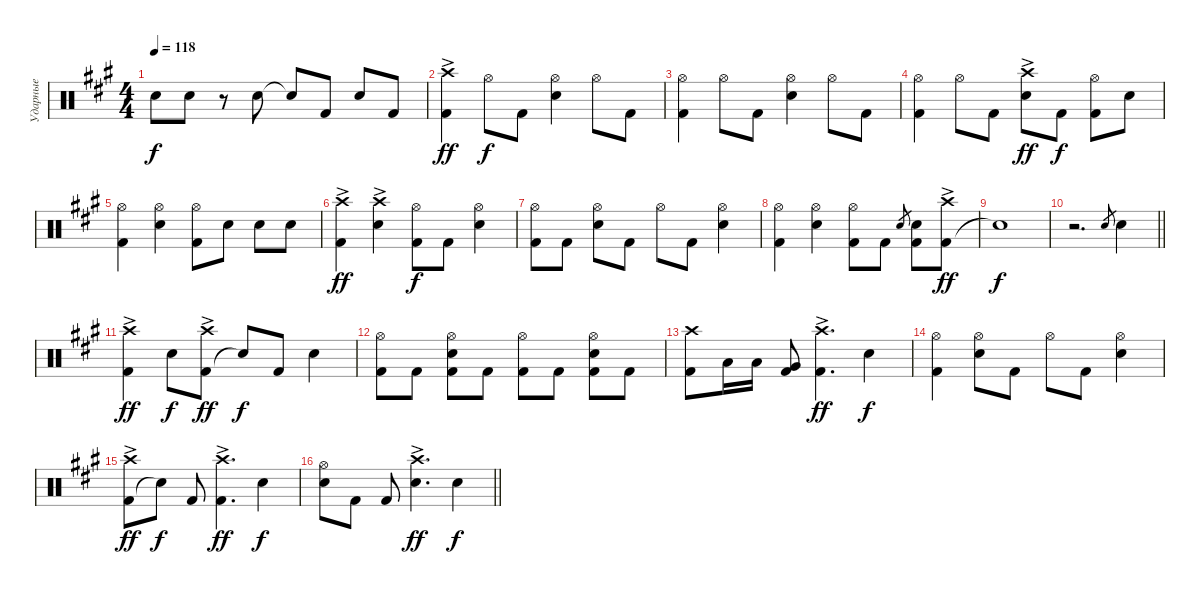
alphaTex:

\track ("Ударные" "Ударные") {instrument percussion}
\staff {score}
\articulation defaults
\ts (4 4)
\tempo 118
\clef neutral
\ks a "Snare (hit) 2".8{dy f} "Snare (hit) 2".8
r.8 "Snare (hit) 2".8 "Snare (hit) 2"{t}.8 "Kick (hit) 2".8 "Snare (hit) 2".8 "Kick (hit) 2".8 |
("Kick (hit) 2" "Crash high (hit)"{ac}).4{dy ff} "Hi-Hat (open)".8{dy f} "Kick (hit) 2".8 ("Snare (hit) 2" "Hi-Hat (open)").4 "Hi-Hat (open)".8 "Kick (hit) 2".8 |
("Kick (hit) 2" "Hi-Hat (open)").4 "Hi-Hat (open)".8 "Kick (hit) 2".8 ("Snare (hit) 2" "Hi-Hat (open)").4 "Hi-Hat (open)".8 "Kick (hit) 2".8 |
("Kick (hit) 2" "Hi-Hat (open)").4 "Hi-Hat (open)".8 "Kick (hit) 2".8 ("Snare (hit) 2" "Crash high (hit)"{ac}).8{dy ff} "Kick (hit) 2".8{dy f} ("Kick (hit) 2" "Hi-Hat (open)").8 "Snare (hit) 2".8 |
("Kick (hit) 2" "Hi-Hat (open)").4 ("Snare (hit) 2" "Hi-Hat (open)").4 ("Kick (hit) 2" "Hi-Hat (open)").8 "Snare (hit) 2".8 "Snare (hit) 2".8 "Snare (hit) 2".8 |
("Kick (hit) 2" "Crash high (hit)"{ac}).4{dy ff} ("Snare (hit) 2" "Crash high (hit)"{ac}).4 ("Kick (hit) 2" "Hi-Hat (open)").8{dy f} "Kick (hit) 2".8 ("Snare (hit) 2" "Hi-Hat (open)").4 |
("Kick (hit) 2" "Hi-Hat (open)").8 "Kick (hit) 2".8 ("Snare (hit) 2" "Hi-Hat (open)").8 "Kick (hit) 2".8 "Hi-Hat (open)".8 "Kick (hit) 2".8 ("Snare (hit) 2" "Hi-Hat (open)").4 |
("Kick (hit) 2" "Hi-Hat (open)").4 ("Snare (hit) 2" "Hi-Hat (open)").4 ("Kick (hit) 2" "Hi-Hat (open)").8 "Kick (hit) 2".8 "Snare (hit) 2".8{gr} ("Kick (hit) 2" "Snare (hit) 2").8 ("Kick (hit) 2" "Crash high (hit)"{ac}).8{dy ff} |
"Snare (hit)"{t}.1{dy f} |
\barLineRight lightlight
r.2{d} "Snare (hit) 2".8{gr} "Snare (hit) 2".4 |
("Kick (hit) 2" "Crash high (hit)"{ac}).4{dy ff} "Snare (hit) 2".8{dy f} ("Kick (hit) 2" "Crash high (hit)"{ac}).8{dy ff} "Snare (hit)"{t}.8{dy f} "Kick (hit) 2".8 "Snare (hit) 2".4 |
("Kick (hit) 2" "Hi-Hat (open)").8 "Kick (hit) 2".8 ("Kick (hit) 2" "Snare (hit) 2" "Hi-Hat (open)").8 "Kick (hit) 2".8 ("Kick (hit) 2" "Hi-Hat (open)").8 "Kick (hit) 2".8 ("Kick (hit) 2" "Snare (hit) 2" "Hi-Hat (open)").8 "Kick (hit) 2".8 |
("Kick (hit) 2" "Crash high (hit)").8 "Low Tom (hit)".16 "Low Tom (hit)".16 ("Kick (hit) 2" "Very Low Tom (hit)").8 ("Kick (hit) 2" "Crash high (hit)"{ac}).4{d dy ff} "Snare (hit) 2".4{dy f} |
("Kick (hit) 2" "Hi-Hat (open)").4 ("Snare (hit) 2" "Hi-Hat (open)").8 "Kick (hit) 2".8 "Hi-Hat (open)".8 "Kick (hit) 2".8 ("Snare (hit) 2" "Hi-Hat (open)").4 |
("Kick (hit) 2" "Crash high (hit)"{ac}).8{dy ff} "Snare (hit)"{t}.8{dy f} "Kick (hit) 2".8 ("Kick (hit) 2" "Crash high (hit)"{ac}).4{d dy ff} "Snare (hit) 2".4{dy f} |
\barLineRight lightlight
("Snare (hit) 2" "Hi-Hat (open)").8 "Kick (hit) 2".8 "Kick (hit) 2".8 ("Snare (hit) 2" "Crash high (hit)"{ac}).4{d dy ff} "Snare (hit) 2".4{dy f}
